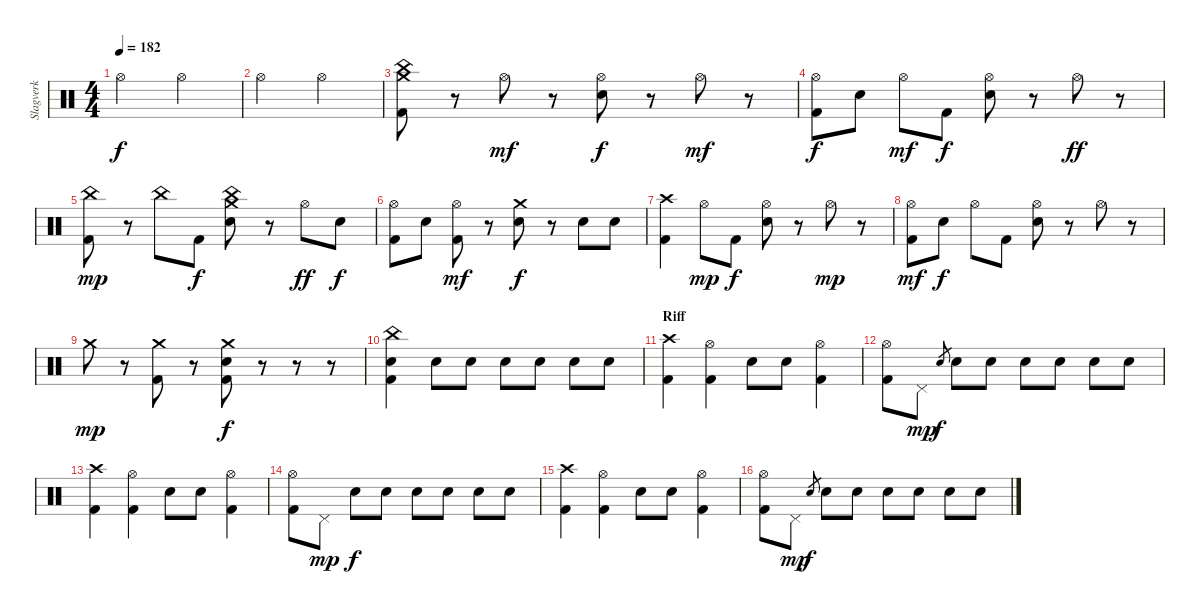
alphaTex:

\track ("Slagverk" "Slagverk") {instrument percussion}
\staff {score}
\articulation defaults
\ts (4 4)
\tempo 182
\clef neutral
\ks c "Hi-Hat (open)".2{dy f} "Hi-Hat (open)".2
|
"Hi-Hat (open)".2 "Hi-Hat (open)".2 |
("Crash medium (hit)" "China (hit)" "Kick (hit) 2").8 r.8 "Hi-Hat (open)".8{dy mf} r.8 ("Hi-Hat (open)" "Electric Snare (hit)").8{dy f} r.8 "Hi-Hat (open)".8{dy mf} r.8 |
("Hi-Hat (open)" "Kick (hit) 2").8{dy f} "Electric Snare (hit)".8 "Hi-Hat (open)".8{dy mf} "Kick (hit) 2".8{dy f} ("Hi-Hat (open)" "Electric Snare (hit)").8 r.8 "Hi-Hat (open)".8{dy ff} r.8 |
("China (hit)" "Kick (hit) 2").8{dy mp} r.8 "China (hit)".8 "Kick (hit) 2".8{dy f} ("China (hit)" "Crash medium (hit)" "Electric Snare (hit)").8 r.8 "Hi-Hat (open)".8{dy ff} "Electric Snare (hit)".8{dy f} |
("Hi-Hat (open)" "Kick (hit) 2").8 "Electric Snare (hit)".8 ("Hi-Hat (open)" "Kick (hit) 2").8{dy mf} r.8 ("Crash medium (hit)" "Electric Snare (hit)").8{dy f} r.8 "Electric Snare (hit)".8 "Electric Snare (hit)".8 |
("Crash high (hit)" "Kick (hit) 2").4 "Hi-Hat (open)".8{dy mp} "Kick (hit) 2".8{dy f} ("Hi-Hat (open)" "Electric Snare (hit)").8 r.8 "Hi-Hat (open)".8{dy mp} r.8 |
("Hi-Hat (open)" "Kick (hit) 2").8{dy mf} "Electric Snare (hit)".8{dy f} "Hi-Hat (open)".8 "Kick (hit) 2".8 ("Hi-Hat (open)" "Electric Snare (hit)").8 r.8 "Hi-Hat (open)".8 r.8 |
"Crash medium (hit)".8{dy mp} r.8 ("Crash medium (hit)" "Kick (hit) 2").8 r.8 ("Crash medium (hit)" "Electric Snare (hit)" "Kick (hit) 2").8{dy f} r.8 r.8 r.8 |
("China (hit)" "Electric Snare (hit)" "Kick (hit) 2").4 "Electric Snare (hit)".8 "Electric Snare (hit)".8 "Electric Snare (hit)".8 "Electric Snare (hit)".8 "Electric Snare (hit)".8 "Electric Snare (hit)".8 |
\section ("" "Riff")
("Crash high (hit)" "Kick (hit) 2").4 ("Hi-Hat (open)" "Kick (hit) 2").4 "Electric Snare (hit)".8 "Electric Snare (hit)".8 ("Hi-Hat (open)" "Kick (hit) 2").4 |
("Hi-Hat (open)" "Kick (hit) 2").8 "Pedal Hi-Hat (hit)".8{dy mp} "Electric Snare (hit)".8{gr dy f} "Electric Snare (hit)".8 "Electric Snare (hit)".8 "Electric Snare (hit)".8 "Electric Snare (hit)".8 "Electric Snare (hit)".8 "Electric Snare (hit)".8 |
("Crash high (hit)" "Kick (hit) 2").4 ("Hi-Hat (open)" "Kick (hit) 2").4 "Electric Snare (hit)".8 "Electric Snare (hit)".8 ("Hi-Hat (open)" "Kick (hit) 2").4 |
("Hi-Hat (open)" "Kick (hit) 2").8 "Pedal Hi-Hat (hit)".8{dy mp} "Electric Snare (hit)".8{dy f} "Electric Snare (hit)".8 "Electric Snare (hit)".8 "Electric Snare (hit)".8 "Electric Snare (hit)".8 "Electric Snare (hit)".8 |
("Crash high (hit)" "Kick (hit) 2").4 ("Hi-Hat (open)" "Kick (hit) 2").4 "Electric Snare (hit)".8 "Electric Snare (hit)".8 ("Hi-Hat (open)" "Kick (hit) 2").4 |
("Hi-Hat (open)" "Kick (hit) 2").8 "Pedal Hi-Hat (hit)".8{dy mp} "Electric Snare (hit)".8{gr dy f} "Electric Snare (hit)".8 "Electric Snare (hit)".8 "Electric Snare (hit)".8 "Electric Snare (hit)".8 "Electric Snare (hit)".8 "Electric Snare (hit)".8
